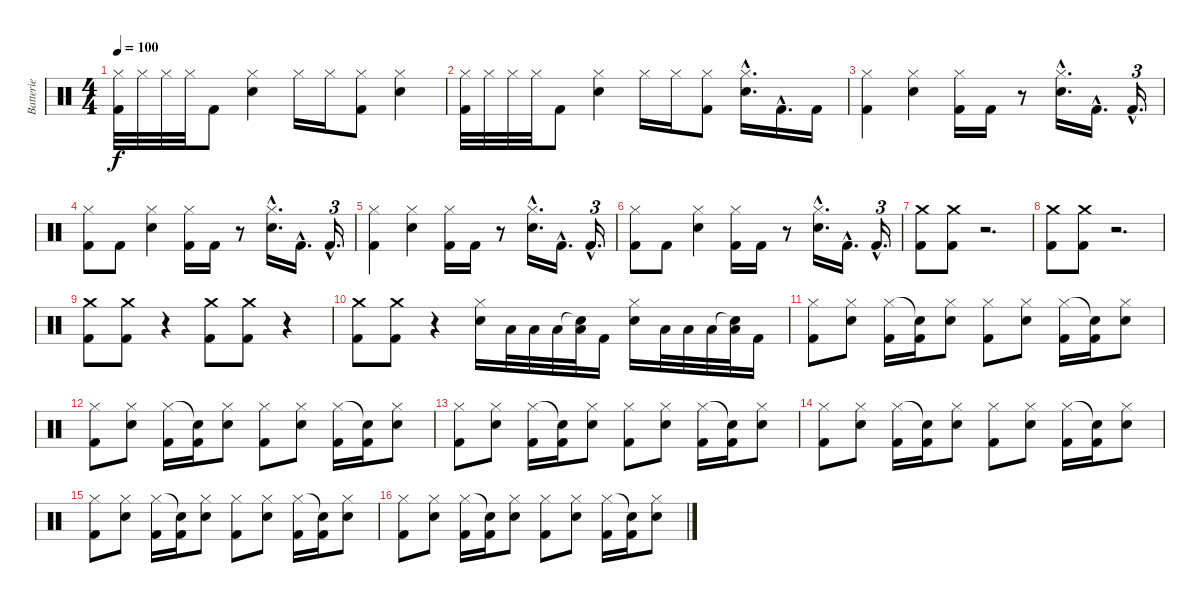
\track ("Batterie" "Batterie") {instrument percussion}
\staff {score}
\articulation defaults
\ts (4 4)
\tempo 100
\clef neutral
\ks c
("Kick (hit) 2" "Hi-Hat (closed)").32{dy f} "Hi-Hat (closed)".32 "Hi-Hat (closed)".32 "Hi-Hat (closed)".32 "Kick (hit) 2".8 ("Electric Snare (hit)" "Hi-Hat (closed)").4 "Hi-Hat (closed)".16 "Hi-Hat (closed)".16 ("Kick (hit) 2" "Hi-Hat (closed)").8 ("Electric Snare (hit)" "Hi-Hat (closed)").4 |
("Kick (hit) 2" "Hi-Hat (closed)").32 "Hi-Hat (closed)".32 "Hi-Hat (closed)".32 "Hi-Hat (closed)".32 "Kick (hit) 2".8 ("Electric Snare (hit)" "Hi-Hat (closed)").4 "Hi-Hat (closed)".16 "Hi-Hat (closed)".16 ("Kick (hit) 2" "Hi-Hat (closed)").8 ("Electric Snare (hit)"{hac} "Hi-Hat (closed)"{hac}).16{d} "Kick (hit) 2"{hac}.16{d} "Kick (hit) 2".16 |
("Kick (hit) 2" "Hi-Hat (closed)").4 ("Electric Snare (hit)" "Hi-Hat (closed)").4 ("Kick (hit) 2" "Hi-Hat (closed)").16 "Kick (hit) 2".16 r.8 ("Electric Snare (hit)"{hac} "Hi-Hat (closed)"{hac}).16{d} "Kick (hit) 2"{hac}.16{d} "Kick (hit) 2"{hac}.16{d tu (3 2)} |
("Kick (hit) 2" "Hi-Hat (closed)").8 "Kick (hit) 2".8 ("Electric Snare (hit)" "Hi-Hat (closed)").4 ("Kick (hit) 2" "Hi-Hat (closed)").16 "Kick (hit) 2".16 r.8 ("Electric Snare (hit)"{hac} "Hi-Hat (closed)"{hac}).16{d} "Kick (hit) 2"{hac}.16{d} "Kick (hit) 2"{hac}.16{d tu (3 2)} |
("Kick (hit) 2" "Hi-Hat (closed)").4 ("Electric Snare (hit)" "Hi-Hat (closed)").4 ("Kick (hit) 2" "Hi-Hat (closed)").16 "Kick (hit) 2".16 r.8 ("Electric Snare (hit)"{hac} "Hi-Hat (closed)"{hac}).16{d} "Kick (hit) 2"{hac}.16{d} "Kick (hit) 2"{hac}.16{d tu (3 2)} |
("Kick (hit) 2" "Hi-Hat (closed)").8 "Kick (hit) 2".8 ("Electric Snare (hit)" "Hi-Hat (closed)").4 ("Kick (hit) 2" "Hi-Hat (closed)").16 "Kick (hit) 2".16 r.8 ("Electric Snare (hit)"{hac} "Hi-Hat (closed)"{hac}).16{d} "Kick (hit) 2"{hac}.16{d} "Kick (hit) 2"{hac}.16{d tu (3 2)} |
("Kick (hit) 2" "Crash medium (hit)").8 ("Kick (hit) 2" "Crash medium (hit)").8 r.2{d} |
("Kick (hit) 2" "Crash medium (hit)").8 ("Kick (hit) 2" "Crash medium (hit)").8 r.2{d} |
("Kick (hit) 2" "Crash medium (hit)").8 ("Kick (hit) 2" "Crash medium (hit)").8 r.4 ("Kick (hit) 2" "Crash medium (hit)").8 ("Kick (hit) 2" "Crash medium (hit)").8 r.4 |
("Kick (hit) 2" "Crash medium (hit)").8 ("Kick (hit) 2" "Crash medium (hit)").8 r.4 ("Electric Snare (hit)" "Hi-Hat (closed)").16 "Low Tom (hit)".32 "Low Tom (hit)".32 "Low Tom (hit)".32 ("Snare (hit)"{t} "Low Tom (hit)").32 "Kick (hit) 2".16 ("Electric Snare (hit)" "Hi-Hat (closed)").16 "Low Tom (hit)".32 "Low Tom (hit)".32 "Low Tom (hit)".32 ("Snare (hit)"{t} "Low Tom (hit)").32 "Kick (hit) 2".16 |
("Kick (hit) 2" "Hi-Hat (closed)").8 ("Electric Snare (hit)" "Hi-Hat (closed)").8 ("Kick (hit) 2" "Hi-Hat (closed)").16 ("Kick (hit) 2" "Snare (hit)"{t}).16 ("Electric Snare (hit)" "Hi-Hat (closed)").8 ("Kick (hit) 2" "Hi-Hat (closed)").8 ("Electric Snare (hit)" "Hi-Hat (closed)").8 ("Kick (hit) 2" "Hi-Hat (closed)").16 ("Kick (hit) 2" "Snare (hit)"{t}).16 ("Electric Snare (hit)" "Hi-Hat (closed)").8 |
("Kick (hit) 2" "Hi-Hat (closed)").8 ("Electric Snare (hit)" "Hi-Hat (closed)").8 ("Kick (hit) 2" "Hi-Hat (closed)").16 ("Kick (hit) 2" "Snare (hit)"{t}).16 ("Electric Snare (hit)" "Hi-Hat (closed)").8 ("Kick (hit) 2" "Hi-Hat (closed)").8 ("Electric Snare (hit)" "Hi-Hat (closed)").8 ("Kick (hit) 2" "Hi-Hat (closed)").16 ("Kick (hit) 2" "Snare (hit)"{t}).16 ("Electric Snare (hit)" "Hi-Hat (closed)").8 |
("Kick (hit) 2" "Hi-Hat (closed)").8 ("Electric Snare (hit)" "Hi-Hat (closed)").8 ("Kick (hit) 2" "Hi-Hat (closed)").16 ("Kick (hit) 2" "Snare (hit)"{t}).16 ("Electric Snare (hit)" "Hi-Hat (closed)").8 ("Kick (hit) 2" "Hi-Hat (closed)").8 ("Electric Snare (hit)" "Hi-Hat (closed)").8 ("Kick (hit) 2" "Hi-Hat (closed)").16 ("Kick (hit) 2" "Snare (hit)"{t}).16 ("Electric Snare (hit)" "Hi-Hat (closed)").8 |
("Kick (hit) 2" "Hi-Hat (closed)").8 ("Electric Snare (hit)" "Hi-Hat (closed)").8 ("Kick (hit) 2" "Hi-Hat (closed)").16 ("Kick (hit) 2" "Snare (hit)"{t}).16 ("Electric Snare (hit)" "Hi-Hat (closed)").8 ("Kick (hit) 2" "Hi-Hat (closed)").8 ("Electric Snare (hit)" "Hi-Hat (closed)").8 ("Kick (hit) 2" "Hi-Hat (closed)").16 ("Kick (hit) 2" "Snare (hit)"{t}).16 ("Electric Snare (hit)" "Hi-Hat (closed)").8 |
("Kick (hit) 2" "Hi-Hat (closed)").8 ("Electric Snare (hit)" "Hi-Hat (closed)").8 ("Kick (hit) 2" "Hi-Hat (closed)").16 ("Kick (hit) 2" "Snare (hit)"{t}).16 ("Electric Snare (hit)" "Hi-Hat (closed)").8 ("Kick (hit) 2" "Hi-Hat (closed)").8 ("Electric Snare (hit)" "Hi-Hat (closed)").8 ("Kick (hit) 2" "Hi-Hat (closed)").16 ("Kick (hit) 2" "Snare (hit)"{t}).16 ("Electric Snare (hit)" "Hi-Hat (closed)").8 |
("Kick (hit) 2" "Hi-Hat (closed)").8 ("Electric Snare (hit)" "Hi-Hat (closed)").8 ("Kick (hit) 2" "Hi-Hat (closed)").16 ("Kick (hit) 2" "Snare (hit)"{t}).16 ("Electric Snare (hit)" "Hi-Hat (closed)").8 ("Kick (hit) 2" "Hi-Hat (closed)").8 ("Electric Snare (hit)" "Hi-Hat (closed)").8 ("Kick (hit) 2" "Hi-Hat (closed)").16 ("Kick (hit) 2" "Snare (hit)"{t}).16 ("Electric Snare (hit)" "Hi-Hat (closed)").8
